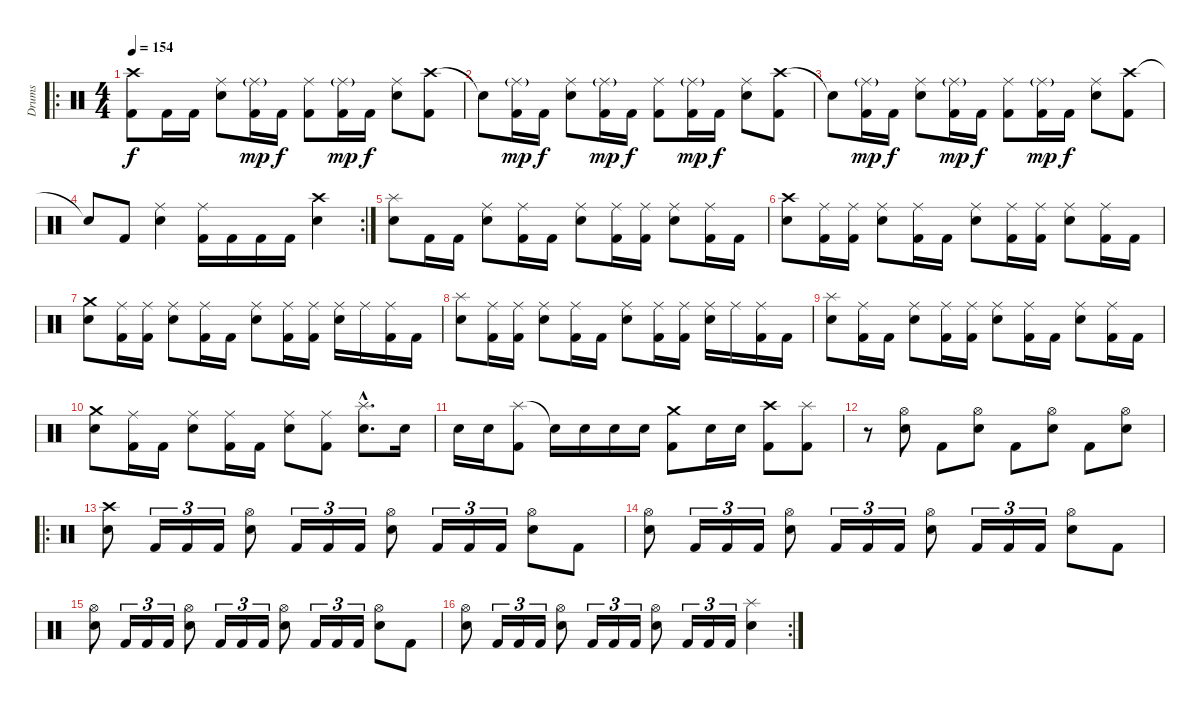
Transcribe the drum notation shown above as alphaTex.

\track ("Drums" "Drums") {instrument percussion}
\staff {score}
\articulation defaults
\ro
\ts (4 4)
\tempo 154
\clef neutral
\ks c
("Crash high (hit)" "Kick (hit) 2").8{dy f} "Kick (hit) 2".16 "Kick (hit) 2".16 ("Ride (middle)" "Snare (hit) 2").8 ("Ride (middle)"{g} "Kick (hit) 2").16{dy mp} "Kick (hit) 2".16{dy f} ("Ride (middle)" "Kick (hit) 2").8 ("Ride (middle)"{g} "Kick (hit) 2").16{dy mp} "Kick (hit) 2".16{dy f} ("Ride (middle)" "Snare (hit) 2").8 ("Crash high (hit)" "Kick (hit) 2").8 |
"Snare (hit)"{t}.8 ("Ride (middle)"{g} "Kick (hit) 2").16{dy mp} "Kick (hit) 2".16{dy f} ("Ride (middle)" "Snare (hit) 2").8 ("Ride (middle)"{g} "Kick (hit) 2").16{dy mp} "Kick (hit) 2".16{dy f} ("Ride (middle)" "Kick (hit) 2").8 ("Ride (middle)"{g} "Kick (hit) 2").16{dy mp} "Kick (hit) 2".16{dy f} ("Ride (middle)" "Snare (hit) 2").8 ("Crash high (hit)" "Kick (hit) 2").8 |
"Snare (hit)"{t}.8 ("Ride (middle)"{g} "Kick (hit) 2").16{dy mp} "Kick (hit) 2".16{dy f} ("Ride (middle)" "Snare (hit) 2").8 ("Ride (middle)"{g} "Kick (hit) 2").16{dy mp} "Kick (hit) 2".16{dy f} ("Ride (middle)" "Kick (hit) 2").8 ("Ride (middle)"{g} "Kick (hit) 2").16{dy mp} "Kick (hit) 2".16{dy f} ("Ride (middle)" "Snare (hit) 2").8 ("Crash high (hit)" "Kick (hit) 2").8 |
\rc 2 "Snare (hit)"{t}.8 "Kick (hit) 2".8
("Ride (middle)" "Snare (hit) 2").4 ("Ride (middle)" "Kick (hit) 2").16 "Kick (hit) 2".16 "Kick (hit) 2".16 "Kick (hit) 2".16 ("Crash high (hit)" "Snare (hit) 2").4 |
("Splash (hit)" "Snare (hit) 2").8 "Kick (hit) 2".16 "Kick (hit) 2".16 ("Ride (middle)" "Snare (hit) 2").8 ("Ride (middle)" "Kick (hit) 2").16 "Kick (hit) 2".16 ("Ride (middle)" "Snare (hit) 2").8 ("Ride (middle)" "Kick (hit) 2").16 ("Ride (middle)" "Kick (hit) 2").16 ("Ride (middle)" "Snare (hit) 2").8 ("Ride (middle)" "Kick (hit) 2").16 "Kick (hit) 2".16 |
("Crash high (hit)" "Snare (hit) 2").8 ("Ride (middle)" "Kick (hit) 2").16 ("Ride (middle)" "Kick (hit) 2").16 ("Ride (middle)" "Snare (hit) 2").8 ("Ride (middle)" "Kick (hit) 2").16 "Kick (hit) 2".16 ("Ride (middle)" "Snare (hit) 2").8 ("Ride (middle)" "Kick (hit) 2").16 ("Ride (middle)" "Kick (hit) 2").16 ("Ride (middle)" "Snare (hit) 2").8 ("Ride (middle)" "Kick (hit) 2").16 "Kick (hit) 2".16 |
("Crash medium (hit)" "Snare (hit) 2").8 ("Ride (middle)" "Kick (hit) 2").16 ("Ride (middle)" "Kick (hit) 2").16 ("Ride (middle)" "Snare (hit) 2").8 ("Ride (middle)" "Kick (hit) 2").16 "Kick (hit) 2".16 ("Ride (middle)" "Snare (hit) 2").8 ("Ride (middle)" "Kick (hit) 2").16 ("Ride (middle)" "Kick (hit) 2").16 ("Ride (middle)" "Snare (hit) 2").16 "Ride (middle)".16 ("Ride (middle)" "Kick (hit) 2").16 "Kick (hit) 2".16 |
("Splash (hit)" "Snare (hit) 2").8 ("Ride (middle)" "Kick (hit) 2").16 ("Ride (middle)" "Kick (hit) 2").16 ("Ride (middle)" "Snare (hit) 2").8 ("Ride (middle)" "Kick (hit) 2").16 "Kick (hit) 2".16 ("Ride (middle)" "Snare (hit) 2").8 ("Ride (middle)" "Kick (hit) 2").16 ("Ride (middle)" "Kick (hit) 2").16 ("Ride (middle)" "Snare (hit) 2").16 "Ride (middle)".16 ("Ride (middle)" "Kick (hit) 2").16 "Kick (hit) 2".16 |
("Splash (hit)" "Snare (hit) 2").8 ("Ride (middle)" "Kick (hit) 2").16 "Kick (hit) 2".16 ("Ride (middle)" "Snare (hit) 2").8 ("Ride (middle)" "Kick (hit) 2").16 ("Ride (middle)" "Kick (hit) 2").16 ("Ride (middle)" "Snare (hit) 2").8 ("Ride (middle)" "Kick (hit) 2").16 "Kick (hit) 2".16 ("Ride (middle)" "Snare (hit) 2").8 ("Ride (middle)" "Kick (hit) 2").16 "Kick (hit) 2".16 |
("Crash medium (hit)" "Snare (hit) 2").8 ("Ride (middle)" "Kick (hit) 2").16 "Kick (hit) 2".16 ("Ride (middle)" "Snare (hit) 2").8 ("Ride (middle)" "Kick (hit) 2").16 "Kick (hit) 2".16 ("Ride (middle)" "Snare (hit) 2").8 ("Ride (middle)" "Kick (hit) 2").8 ("Splash (hit)"{hac} "Snare (hit) 2"{hac}).8{d} "Snare (hit) 2".16 |
"Snare (hit) 2".16 "Snare (hit) 2".16 ("Splash (hit)" "Kick (hit) 2").8 "Snare (hit)"{t}.16 "Snare (hit) 2".16 "Snare (hit) 2".16 "Snare (hit) 2".16 ("Crash medium (hit)" "Kick (hit) 2").8 "Snare (hit) 2".16 "Snare (hit) 2".16 ("Crash high (hit)" "Kick (hit) 2").8 ("Splash (hit)" "Kick (hit) 2").8 |
r.8 ("Hi-Hat (open)" "Snare (hit) 2").8 "Kick (hit) 2".8 ("Hi-Hat (open)" "Snare (hit) 2").8 "Kick (hit) 2".8 ("Hi-Hat (open)" "Snare (hit) 2").8 "Kick (hit) 2".8 ("Hi-Hat (open)" "Snare (hit) 2").8 |
\ro
("Crash high (hit)" "Snare (hit) 2").8 "Kick (hit) 2".16{tu (3 2)} "Kick (hit) 2".16{tu (3 2)} "Kick (hit) 2".16{tu (3 2)} ("Hi-Hat (open)" "Snare (hit) 2").8 "Kick (hit) 2".16{tu (3 2)} "Kick (hit) 2".16{tu (3 2)} "Kick (hit) 2".16{tu (3 2)} ("Hi-Hat (open)" "Snare (hit) 2").8 "Kick (hit) 2".16{tu (3 2)} "Kick (hit) 2".16{tu (3 2)} "Kick (hit) 2".16{tu (3 2)} ("Hi-Hat (open)" "Snare (hit) 2").8 "Kick (hit) 2".8 |
("Hi-Hat (open)" "Snare (hit) 2").8 "Kick (hit) 2".16{tu (3 2)} "Kick (hit) 2".16{tu (3 2)} "Kick (hit) 2".16{tu (3 2)} ("Hi-Hat (open)" "Snare (hit) 2").8 "Kick (hit) 2".16{tu (3 2)} "Kick (hit) 2".16{tu (3 2)} "Kick (hit) 2".16{tu (3 2)} ("Hi-Hat (open)" "Snare (hit) 2").8 "Kick (hit) 2".16{tu (3 2)} "Kick (hit) 2".16{tu (3 2)} "Kick (hit) 2".16{tu (3 2)} ("Hi-Hat (open)" "Snare (hit) 2").8 "Kick (hit) 2".8 |
("Hi-Hat (open)" "Snare (hit) 2").8 "Kick (hit) 2".16{tu (3 2)} "Kick (hit) 2".16{tu (3 2)} "Kick (hit) 2".16{tu (3 2)} ("Hi-Hat (open)" "Snare (hit) 2").8 "Kick (hit) 2".16{tu (3 2)} "Kick (hit) 2".16{tu (3 2)} "Kick (hit) 2".16{tu (3 2)} ("Hi-Hat (open)" "Snare (hit) 2").8 "Kick (hit) 2".16{tu (3 2)} "Kick (hit) 2".16{tu (3 2)} "Kick (hit) 2".16{tu (3 2)} ("Hi-Hat (open)" "Snare (hit) 2").8 "Kick (hit) 2".8 |
\rc 2
("Hi-Hat (open)" "Snare (hit) 2").8 "Kick (hit) 2".16{tu (3 2)} "Kick (hit) 2".16{tu (3 2)} "Kick (hit) 2".16{tu (3 2)} ("Hi-Hat (open)" "Snare (hit) 2").8 "Kick (hit) 2".16{tu (3 2)} "Kick (hit) 2".16{tu (3 2)} "Kick (hit) 2".16{tu (3 2)} ("Hi-Hat (open)" "Snare (hit) 2").8 "Kick (hit) 2".16{tu (3 2)} "Kick (hit) 2".16{tu (3 2)} "Kick (hit) 2".16{tu (3 2)} ("Splash (hit)" "Snare (hit) 2").4
